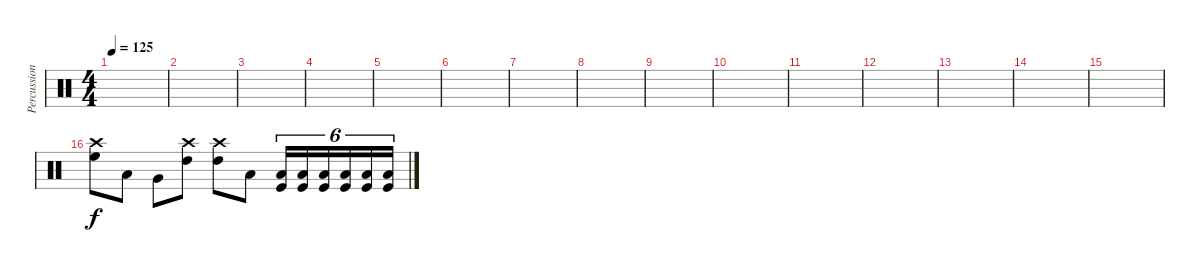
\track ("Percussions" "Percussion") {instrument percussion}
\staff {score}
\articulation defaults
\ts (4 4)
\tempo 125
\clef neutral
\ks c
|
|
|
|
|
|
|
|
|
|
|
|
|
|
|
("High Floor Tom (hit)" "Crash high (hit)").8 "Low Tom (hit)".8 "Very Low Tom (hit)".8 ("High Tom (hit)" "Crash high (hit)").8 ("High Tom (hit)" "Crash high (hit)").8 "Low Tom (hit)".8 ("Low Tom (hit)" "Kick (hit)").16{tu (6 4)} ("Low Tom (hit)" "Kick (hit)").16{tu (6 4)} ("Low Tom (hit)" "Kick (hit)").16{tu (6 4)} ("Low Tom (hit)" "Kick (hit)").16{tu (6 4)} ("Low Tom (hit)" "Kick (hit)").16{tu (6 4)} ("Low Tom (hit)" "Kick (hit)").16{tu (6 4)}
